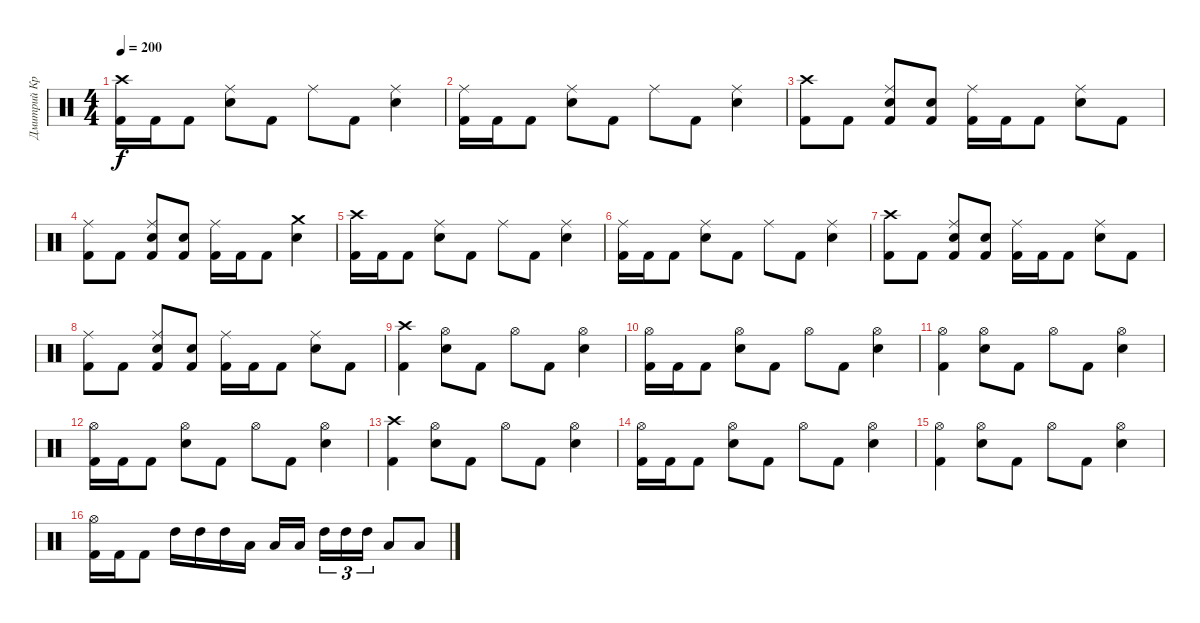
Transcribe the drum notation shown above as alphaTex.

\track ("Дмитрий Кривенков" "Дмитрий Кр") {instrument percussion}
\staff {score}
\articulation defaults
\ts (4 4)
\tempo 200
\clef neutral
\ks c
("Crash high (hit)" "Kick (hit) 2").16{dy f} "Kick (hit) 2".16 "Kick (hit) 2".8 ("Ride (middle)" "Electric Snare (hit)").8 "Kick (hit) 2".8 "Ride (middle)".8 "Kick (hit) 2".8 ("Ride (middle)" "Electric Snare (hit)").4 |
("Ride (middle)" "Kick (hit) 2").16 "Kick (hit) 2".16 "Kick (hit) 2".8 ("Ride (middle)" "Electric Snare (hit)").8 "Kick (hit) 2".8 "Ride (middle)".8 "Kick (hit) 2".8 ("Ride (middle)" "Electric Snare (hit)").4 |
("Crash high (hit)" "Kick (hit) 2").8 "Kick (hit) 2".8 ("Ride (middle)" "Electric Snare (hit)" "Kick (hit) 2").8 ("Electric Snare (hit)" "Kick (hit) 2").8 ("Ride (middle)" "Kick (hit) 2").16 "Kick (hit) 2".16 "Kick (hit) 2".8 ("Ride (middle)" "Electric Snare (hit)").8 "Kick (hit) 2".8 |
("Ride (middle)" "Kick (hit) 2").8 "Kick (hit) 2".8 ("Ride (middle)" "Electric Snare (hit)" "Kick (hit) 2").8 ("Electric Snare (hit)" "Kick (hit) 2").8 ("Ride (middle)" "Kick (hit) 2").16 "Kick (hit) 2".16 "Kick (hit) 2".8 ("Crash medium (hit)" "Electric Snare (hit)").4 |
("Crash high (hit)" "Kick (hit) 2").16 "Kick (hit) 2".16 "Kick (hit) 2".8 ("Ride (middle)" "Electric Snare (hit)").8 "Kick (hit) 2".8 "Ride (middle)".8 "Kick (hit) 2".8 ("Ride (middle)" "Electric Snare (hit)").4 |
("Ride (middle)" "Kick (hit) 2").16 "Kick (hit) 2".16 "Kick (hit) 2".8 ("Ride (middle)" "Electric Snare (hit)").8 "Kick (hit) 2".8 "Ride (middle)".8 "Kick (hit) 2".8 ("Ride (middle)" "Electric Snare (hit)").4 |
("Crash high (hit)" "Kick (hit) 2").8 "Kick (hit) 2".8 ("Ride (middle)" "Electric Snare (hit)" "Kick (hit) 2").8 ("Electric Snare (hit)" "Kick (hit) 2").8 ("Ride (middle)" "Kick (hit) 2").16 "Kick (hit) 2".16 "Kick (hit) 2".8 ("Ride (middle)" "Electric Snare (hit)").8 "Kick (hit) 2".8 |
("Ride (middle)" "Kick (hit) 2").8 "Kick (hit) 2".8 ("Ride (middle)" "Electric Snare (hit)" "Kick (hit) 2").8 ("Electric Snare (hit)" "Kick (hit) 2").8 ("Ride (middle)" "Kick (hit) 2").16 "Kick (hit) 2".16 "Kick (hit) 2".8 ("Ride (middle)" "Electric Snare (hit)").8 "Kick (hit) 2".8 |
("Crash high (hit)" "Kick (hit) 2").4 ("Hi-Hat (open)" "Electric Snare (hit)").8 "Kick (hit) 2".8 "Hi-Hat (open)".8 "Kick (hit) 2".8 ("Hi-Hat (open)" "Electric Snare (hit)").4 |
("Hi-Hat (open)" "Kick (hit) 2").16 "Kick (hit) 2".16 "Kick (hit) 2".8 ("Hi-Hat (open)" "Electric Snare (hit)").8 "Kick (hit) 2".8 "Hi-Hat (open)".8 "Kick (hit) 2".8 ("Hi-Hat (open)" "Electric Snare (hit)").4 |
("Hi-Hat (open)" "Kick (hit) 2").4 ("Hi-Hat (open)" "Electric Snare (hit)").8 "Kick (hit) 2".8 "Hi-Hat (open)".8 "Kick (hit) 2".8 ("Hi-Hat (open)" "Electric Snare (hit)").4 |
("Hi-Hat (open)" "Kick (hit) 2").16 "Kick (hit) 2".16 "Kick (hit) 2".8 ("Hi-Hat (open)" "Electric Snare (hit)").8 "Kick (hit) 2".8 "Hi-Hat (open)".8 "Kick (hit) 2".8 ("Hi-Hat (open)" "Electric Snare (hit)").4 |
("Crash high (hit)" "Kick (hit) 2").4 ("Hi-Hat (open)" "Electric Snare (hit)").8 "Kick (hit) 2".8 "Hi-Hat (open)".8 "Kick (hit) 2".8 ("Hi-Hat (open)" "Electric Snare (hit)").4 |
("Hi-Hat (open)" "Kick (hit) 2").16 "Kick (hit) 2".16 "Kick (hit) 2".8 ("Hi-Hat (open)" "Electric Snare (hit)").8 "Kick (hit) 2".8 "Hi-Hat (open)".8 "Kick (hit) 2".8 ("Hi-Hat (open)" "Electric Snare (hit)").4 |
("Hi-Hat (open)" "Kick (hit) 2").4 ("Hi-Hat (open)" "Electric Snare (hit)").8 "Kick (hit) 2".8 "Hi-Hat (open)".8 "Kick (hit) 2".8 ("Hi-Hat (open)" "Electric Snare (hit)").4 |
("Hi-Hat (open)" "Kick (hit) 2").16 "Kick (hit) 2".16 "Kick (hit) 2".8 "High Tom (hit)".16 "High Tom (hit)".16 "High Tom (hit)".16 "Low Tom (hit)".16 "Low Tom (hit)".16 "Low Tom (hit)".16{beam splitsecondary} "High Tom (hit)".16{tu (3 2)} "High Tom (hit)".16{tu (3 2)} "High Tom (hit)".16{tu (3 2)} "Low Tom (hit)".8 "Low Tom (hit)".8
